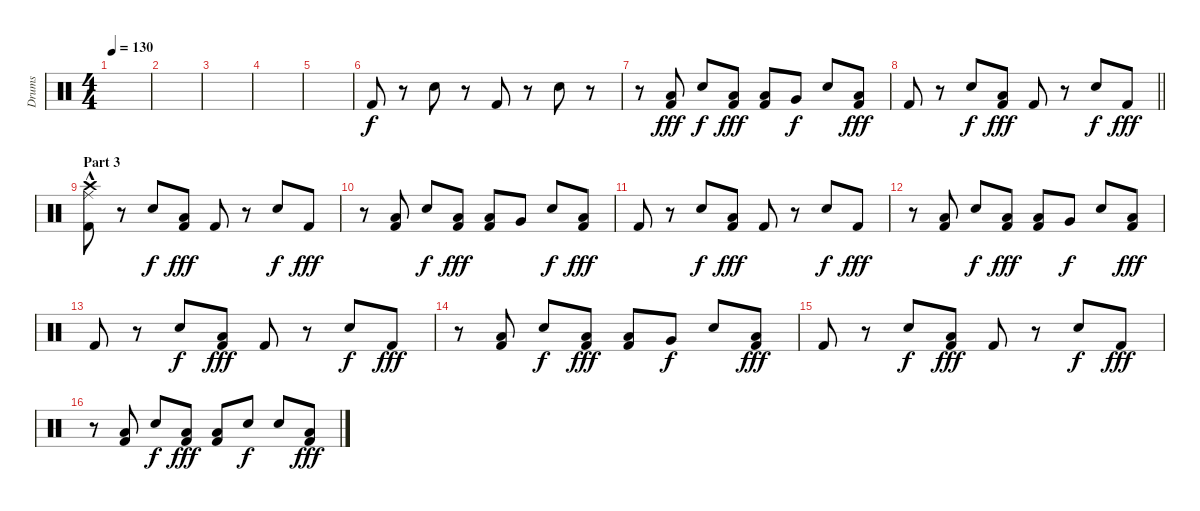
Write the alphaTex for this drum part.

\track ("Drums" "Drums") {instrument percussion}
\staff {score}
\articulation defaults
\ts (4 4)
\tempo 130
\clef neutral
\ks c
|
|
|
|
|
"Kick (hit) 2".8{volume 9} r.8 "Electric Snare (hit)".8 r.8 "Kick (hit) 2".8 r.8 "Electric Snare (hit)".8 r.8 |
r.8 ("Low Floor Tom (hit)" "Kick (hit) 2").8{dy fff} "Electric Snare (hit)".8{dy f} ("Low Floor Tom (hit)" "Kick (hit) 2").8{dy fff} ("Low Floor Tom (hit)" "Kick (hit) 2").8 "Very Low Tom (hit)".8{dy f} "Electric Snare (hit)".8 ("Low Floor Tom (hit)" "Kick (hit) 2").8{dy fff} |
\barLineRight lightlight "Kick (hit) 2".8
r.8 "Electric Snare (hit)".8{dy f} ("Low Floor Tom (hit)" "Kick (hit) 2").8{dy fff} "Kick (hit) 2".8 r.8 "Electric Snare (hit)".8{dy f} "Kick (hit) 2".8{dy fff} |
\section ("" "Part 3")
("Ride (middle)"{hac} "Crash high (hit)"{hac} "Kick (hit) 2").8{volume 13} r.8 "Electric Snare (hit)".8{dy f} ("Low Floor Tom (hit)" "Kick (hit) 2").8{dy fff} "Kick (hit) 2".8 r.8 "Electric Snare (hit)".8{dy f} "Kick (hit) 2".8{dy fff} |
r.8 ("Low Floor Tom (hit)" "Kick (hit) 2").8 "Electric Snare (hit)".8{dy f} ("Low Floor Tom (hit)" "Kick (hit) 2").8{dy fff} ("Low Floor Tom (hit)" "Kick (hit) 2").8 "Very Low Tom (hit)".8 "Electric Snare (hit)".8{dy f} ("Low Floor Tom (hit)" "Kick (hit) 2").8{dy fff} |
"Kick (hit) 2".8 r.8 "Electric Snare (hit)".8{dy f} ("Low Floor Tom (hit)" "Kick (hit) 2").8{dy fff} "Kick (hit) 2".8 r.8 "Electric Snare (hit)".8{dy f} "Kick (hit) 2".8{dy fff} |
r.8 ("Low Floor Tom (hit)" "Kick (hit) 2").8 "Electric Snare (hit)".8{dy f} ("Low Floor Tom (hit)" "Kick (hit) 2").8{dy fff} ("Low Floor Tom (hit)" "Kick (hit) 2").8 "Very Low Tom (hit)".8{dy f} "Electric Snare (hit)".8 ("Low Floor Tom (hit)" "Kick (hit) 2").8{dy fff} |
"Kick (hit) 2".8 r.8 "Electric Snare (hit)".8{dy f} ("Low Floor Tom (hit)" "Kick (hit) 2").8{dy fff} "Kick (hit) 2".8 r.8 "Electric Snare (hit)".8{dy f} "Kick (hit) 2".8{dy fff} |
r.8 ("Low Floor Tom (hit)" "Kick (hit) 2").8 "Electric Snare (hit)".8{dy f} ("Low Floor Tom (hit)" "Kick (hit) 2").8{dy fff} ("Low Floor Tom (hit)" "Kick (hit) 2").8 "Very Low Tom (hit)".8{dy f} "Electric Snare (hit)".8 ("Low Floor Tom (hit)" "Kick (hit) 2").8{dy fff} |
"Kick (hit) 2".8 r.8 "Electric Snare (hit)".8{dy f} ("Low Floor Tom (hit)" "Kick (hit) 2").8{dy fff} "Kick (hit) 2".8 r.8 "Electric Snare (hit)".8{dy f} "Kick (hit) 2".8{dy fff} |
r.8 ("Low Floor Tom (hit)" "Kick (hit) 2").8 "Electric Snare (hit)".8{dy f} ("Low Floor Tom (hit)" "Kick (hit) 2").8{dy fff} ("Low Floor Tom (hit)" "Kick (hit) 2").8 "Electric Snare (hit)".8{dy f} "Electric Snare (hit)".8 ("Low Floor Tom (hit)" "Kick (hit) 2").8{dy fff}
